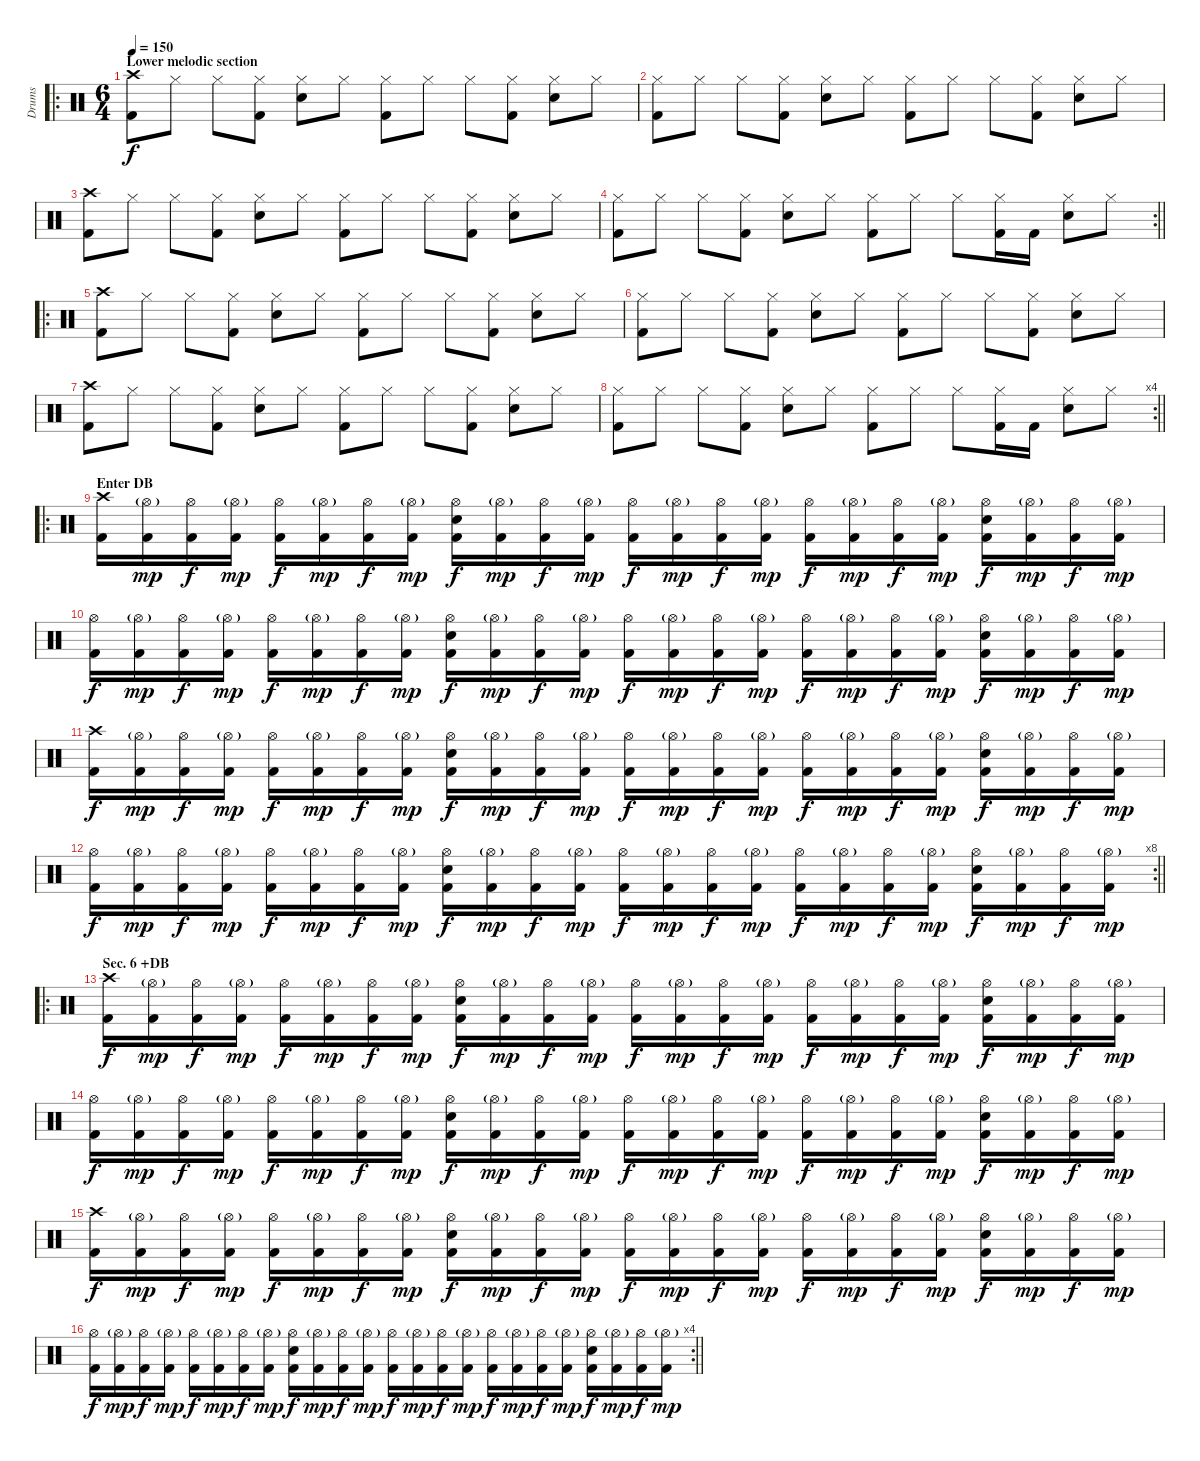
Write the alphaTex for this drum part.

\track ("Drums" "Drums") {instrument percussion}
\staff {score}
\articulation defaults
\ro
\ts (6 4)
\section ("" "Lower melodic section")
\tempo 150
\clef neutral
\ks c
("Kick (hit) 2" "Crash high (hit)").8{dy f} "Hi-Hat (closed)".8 "Hi-Hat (closed)".8 ("Kick (hit) 2" "Hi-Hat (closed)").8 ("Snare (hit) 2" "Hi-Hat (closed)").8 "Hi-Hat (closed)".8 ("Kick (hit) 2" "Hi-Hat (closed)").8 "Hi-Hat (closed)".8 "Hi-Hat (closed)".8 ("Kick (hit) 2" "Hi-Hat (closed)").8 ("Snare (hit) 2" "Hi-Hat (closed)").8 "Hi-Hat (closed)".8 |
("Kick (hit) 2" "Hi-Hat (closed)").8 "Hi-Hat (closed)".8 "Hi-Hat (closed)".8 ("Kick (hit) 2" "Hi-Hat (closed)").8 ("Snare (hit) 2" "Hi-Hat (closed)").8 "Hi-Hat (closed)".8 ("Kick (hit) 2" "Hi-Hat (closed)").8 "Hi-Hat (closed)".8 "Hi-Hat (closed)".8 ("Kick (hit) 2" "Hi-Hat (closed)").8 ("Snare (hit) 2" "Hi-Hat (closed)").8 "Hi-Hat (closed)".8 |
("Kick (hit) 2" "Crash high (hit)").8 "Hi-Hat (closed)".8 "Hi-Hat (closed)".8 ("Kick (hit) 2" "Hi-Hat (closed)").8 ("Snare (hit) 2" "Hi-Hat (closed)").8 "Hi-Hat (closed)".8 ("Kick (hit) 2" "Hi-Hat (closed)").8 "Hi-Hat (closed)".8 "Hi-Hat (closed)".8 ("Kick (hit) 2" "Hi-Hat (closed)").8 ("Snare (hit) 2" "Hi-Hat (closed)").8 "Hi-Hat (closed)".8 |
\rc 2
\barLineRight lightlight
("Kick (hit) 2" "Hi-Hat (closed)").8 "Hi-Hat (closed)".8 "Hi-Hat (closed)".8 ("Kick (hit) 2" "Hi-Hat (closed)").8 ("Snare (hit) 2" "Hi-Hat (closed)").8 "Hi-Hat (closed)".8 ("Kick (hit) 2" "Hi-Hat (closed)").8 "Hi-Hat (closed)".8 "Hi-Hat (closed)".8 ("Kick (hit) 2" "Hi-Hat (closed)").16 "Kick (hit) 2".16 ("Snare (hit) 2" "Hi-Hat (closed)").8 "Hi-Hat (closed)".8 |
\ro
("Kick (hit) 2" "Crash high (hit)").8 "Hi-Hat (closed)".8 "Hi-Hat (closed)".8 ("Kick (hit) 2" "Hi-Hat (closed)").8 ("Snare (hit) 2" "Hi-Hat (closed)").8 "Hi-Hat (closed)".8 ("Kick (hit) 2" "Hi-Hat (closed)").8 "Hi-Hat (closed)".8 "Hi-Hat (closed)".8 ("Kick (hit) 2" "Hi-Hat (closed)").8 ("Snare (hit) 2" "Hi-Hat (closed)").8 "Hi-Hat (closed)".8 |
("Kick (hit) 2" "Hi-Hat (closed)").8 "Hi-Hat (closed)".8 "Hi-Hat (closed)".8 ("Kick (hit) 2" "Hi-Hat (closed)").8 ("Snare (hit) 2" "Hi-Hat (closed)").8 "Hi-Hat (closed)".8 ("Kick (hit) 2" "Hi-Hat (closed)").8 "Hi-Hat (closed)".8 "Hi-Hat (closed)".8 ("Kick (hit) 2" "Hi-Hat (closed)").8 ("Snare (hit) 2" "Hi-Hat (closed)").8 "Hi-Hat (closed)".8 |
("Kick (hit) 2" "Crash high (hit)").8 "Hi-Hat (closed)".8 "Hi-Hat (closed)".8 ("Kick (hit) 2" "Hi-Hat (closed)").8 ("Snare (hit) 2" "Hi-Hat (closed)").8 "Hi-Hat (closed)".8 ("Kick (hit) 2" "Hi-Hat (closed)").8 "Hi-Hat (closed)".8 "Hi-Hat (closed)".8 ("Kick (hit) 2" "Hi-Hat (closed)").8 ("Snare (hit) 2" "Hi-Hat (closed)").8 "Hi-Hat (closed)".8 |
\rc 4
\barLineRight lightlight
("Kick (hit) 2" "Hi-Hat (closed)").8 "Hi-Hat (closed)".8 "Hi-Hat (closed)".8 ("Kick (hit) 2" "Hi-Hat (closed)").8 ("Snare (hit) 2" "Hi-Hat (closed)").8 "Hi-Hat (closed)".8 ("Kick (hit) 2" "Hi-Hat (closed)").8 "Hi-Hat (closed)".8 "Hi-Hat (closed)".8 ("Kick (hit) 2" "Hi-Hat (closed)").16 "Kick (hit) 2".16 ("Snare (hit) 2" "Hi-Hat (closed)").8 "Hi-Hat (closed)".8 |
\ro
\section ("" "Enter DB")
("Kick (hit) 2" "Crash high (hit)").16 ("Kick (hit) 2" "Hi-Hat (open)"{g}).16{dy mp} ("Kick (hit) 2" "Hi-Hat (open)").16{dy f} ("Kick (hit) 2" "Hi-Hat (open)"{g}).16{dy mp} ("Kick (hit) 2" "Hi-Hat (open)").16{dy f} ("Kick (hit) 2" "Hi-Hat (open)"{g}).16{dy mp} ("Kick (hit) 2" "Hi-Hat (open)").16{dy f} ("Kick (hit) 2" "Hi-Hat (open)"{g}).16{dy mp} ("Kick (hit) 2" "Snare (hit) 2" "Hi-Hat (open)").16{dy f} ("Kick (hit) 2" "Hi-Hat (open)"{g}).16{dy mp} ("Kick (hit) 2" "Hi-Hat (open)").16{dy f} ("Kick (hit) 2" "Hi-Hat (open)"{g}).16{dy mp} ("Kick (hit) 2" "Hi-Hat (open)").16{dy f} ("Kick (hit) 2" "Hi-Hat (open)"{g}).16{dy mp} ("Kick (hit) 2" "Hi-Hat (open)").16{dy f} ("Kick (hit) 2" "Hi-Hat (open)"{g}).16{dy mp} ("Kick (hit) 2" "Hi-Hat (open)").16{dy f} ("Kick (hit) 2" "Hi-Hat (open)"{g}).16{dy mp} ("Kick (hit) 2" "Hi-Hat (open)").16{dy f} ("Kick (hit) 2" "Hi-Hat (open)"{g}).16{dy mp} ("Kick (hit) 2" "Snare (hit) 2" "Hi-Hat (open)").16{dy f} ("Kick (hit) 2" "Hi-Hat (open)"{g}).16{dy mp} ("Kick (hit) 2" "Hi-Hat (open)").16{dy f} ("Kick (hit) 2" "Hi-Hat (open)"{g}).16{dy mp} |
("Kick (hit) 2" "Hi-Hat (open)").16{dy f} ("Kick (hit) 2" "Hi-Hat (open)"{g}).16{dy mp} ("Kick (hit) 2" "Hi-Hat (open)").16{dy f} ("Kick (hit) 2" "Hi-Hat (open)"{g}).16{dy mp} ("Kick (hit) 2" "Hi-Hat (open)").16{dy f} ("Kick (hit) 2" "Hi-Hat (open)"{g}).16{dy mp} ("Kick (hit) 2" "Hi-Hat (open)").16{dy f} ("Kick (hit) 2" "Hi-Hat (open)"{g}).16{dy mp} ("Kick (hit) 2" "Snare (hit) 2" "Hi-Hat (open)").16{dy f} ("Kick (hit) 2" "Hi-Hat (open)"{g}).16{dy mp} ("Kick (hit) 2" "Hi-Hat (open)").16{dy f} ("Kick (hit) 2" "Hi-Hat (open)"{g}).16{dy mp} ("Kick (hit) 2" "Hi-Hat (open)").16{dy f} ("Kick (hit) 2" "Hi-Hat (open)"{g}).16{dy mp} ("Kick (hit) 2" "Hi-Hat (open)").16{dy f} ("Kick (hit) 2" "Hi-Hat (open)"{g}).16{dy mp} ("Kick (hit) 2" "Hi-Hat (open)").16{dy f} ("Kick (hit) 2" "Hi-Hat (open)"{g}).16{dy mp} ("Kick (hit) 2" "Hi-Hat (open)").16{dy f} ("Kick (hit) 2" "Hi-Hat (open)"{g}).16{dy mp} ("Kick (hit) 2" "Snare (hit) 2" "Hi-Hat (open)").16{dy f} ("Kick (hit) 2" "Hi-Hat (open)"{g}).16{dy mp} ("Kick (hit) 2" "Hi-Hat (open)").16{dy f} ("Kick (hit) 2" "Hi-Hat (open)"{g}).16{dy mp} |
("Kick (hit) 2" "Crash high (hit)").16{dy f} ("Kick (hit) 2" "Hi-Hat (open)"{g}).16{dy mp} ("Kick (hit) 2" "Hi-Hat (open)").16{dy f} ("Kick (hit) 2" "Hi-Hat (open)"{g}).16{dy mp} ("Kick (hit) 2" "Hi-Hat (open)").16{dy f} ("Kick (hit) 2" "Hi-Hat (open)"{g}).16{dy mp} ("Kick (hit) 2" "Hi-Hat (open)").16{dy f} ("Kick (hit) 2" "Hi-Hat (open)"{g}).16{dy mp} ("Kick (hit) 2" "Snare (hit) 2" "Hi-Hat (open)").16{dy f} ("Kick (hit) 2" "Hi-Hat (open)"{g}).16{dy mp} ("Kick (hit) 2" "Hi-Hat (open)").16{dy f} ("Kick (hit) 2" "Hi-Hat (open)"{g}).16{dy mp} ("Kick (hit) 2" "Hi-Hat (open)").16{dy f} ("Kick (hit) 2" "Hi-Hat (open)"{g}).16{dy mp} ("Kick (hit) 2" "Hi-Hat (open)").16{dy f} ("Kick (hit) 2" "Hi-Hat (open)"{g}).16{dy mp} ("Kick (hit) 2" "Hi-Hat (open)").16{dy f} ("Kick (hit) 2" "Hi-Hat (open)"{g}).16{dy mp} ("Kick (hit) 2" "Hi-Hat (open)").16{dy f} ("Kick (hit) 2" "Hi-Hat (open)"{g}).16{dy mp} ("Kick (hit) 2" "Snare (hit) 2" "Hi-Hat (open)").16{dy f} ("Kick (hit) 2" "Hi-Hat (open)"{g}).16{dy mp} ("Kick (hit) 2" "Hi-Hat (open)").16{dy f} ("Kick (hit) 2" "Hi-Hat (open)"{g}).16{dy mp} |
\rc 8
\barLineRight lightlight
("Kick (hit) 2" "Hi-Hat (open)").16{dy f} ("Kick (hit) 2" "Hi-Hat (open)"{g}).16{dy mp} ("Kick (hit) 2" "Hi-Hat (open)").16{dy f} ("Kick (hit) 2" "Hi-Hat (open)"{g}).16{dy mp} ("Kick (hit) 2" "Hi-Hat (open)").16{dy f} ("Kick (hit) 2" "Hi-Hat (open)"{g}).16{dy mp} ("Kick (hit) 2" "Hi-Hat (open)").16{dy f} ("Kick (hit) 2" "Hi-Hat (open)"{g}).16{dy mp} ("Kick (hit) 2" "Snare (hit) 2" "Hi-Hat (open)").16{dy f} ("Kick (hit) 2" "Hi-Hat (open)"{g}).16{dy mp} ("Kick (hit) 2" "Hi-Hat (open)").16{dy f} ("Kick (hit) 2" "Hi-Hat (open)"{g}).16{dy mp} ("Kick (hit) 2" "Hi-Hat (open)").16{dy f} ("Kick (hit) 2" "Hi-Hat (open)"{g}).16{dy mp} ("Kick (hit) 2" "Hi-Hat (open)").16{dy f} ("Kick (hit) 2" "Hi-Hat (open)"{g}).16{dy mp} ("Kick (hit) 2" "Hi-Hat (open)").16{dy f} ("Kick (hit) 2" "Hi-Hat (open)"{g}).16{dy mp} ("Kick (hit) 2" "Hi-Hat (open)").16{dy f} ("Kick (hit) 2" "Hi-Hat (open)"{g}).16{dy mp} ("Kick (hit) 2" "Snare (hit) 2" "Hi-Hat (open)").16{dy f} ("Kick (hit) 2" "Hi-Hat (open)"{g}).16{dy mp} ("Kick (hit) 2" "Hi-Hat (open)").16{dy f} ("Kick (hit) 2" "Hi-Hat (open)"{g}).16{dy mp} |
\ro
\section ("" "Sec. 6 +DB")
("Kick (hit) 2" "Crash high (hit)").16{dy f} ("Kick (hit) 2" "Hi-Hat (open)"{g}).16{dy mp} ("Kick (hit) 2" "Hi-Hat (open)").16{dy f} ("Kick (hit) 2" "Hi-Hat (open)"{g}).16{dy mp} ("Kick (hit) 2" "Hi-Hat (open)").16{dy f} ("Kick (hit) 2" "Hi-Hat (open)"{g}).16{dy mp} ("Kick (hit) 2" "Hi-Hat (open)").16{dy f} ("Kick (hit) 2" "Hi-Hat (open)"{g}).16{dy mp} ("Kick (hit) 2" "Snare (hit) 2" "Hi-Hat (open)").16{dy f} ("Kick (hit) 2" "Hi-Hat (open)"{g}).16{dy mp} ("Kick (hit) 2" "Hi-Hat (open)").16{dy f} ("Kick (hit) 2" "Hi-Hat (open)"{g}).16{dy mp} ("Kick (hit) 2" "Hi-Hat (open)").16{dy f} ("Kick (hit) 2" "Hi-Hat (open)"{g}).16{dy mp} ("Kick (hit) 2" "Hi-Hat (open)").16{dy f} ("Kick (hit) 2" "Hi-Hat (open)"{g}).16{dy mp} ("Kick (hit) 2" "Hi-Hat (open)").16{dy f} ("Kick (hit) 2" "Hi-Hat (open)"{g}).16{dy mp} ("Kick (hit) 2" "Hi-Hat (open)").16{dy f} ("Kick (hit) 2" "Hi-Hat (open)"{g}).16{dy mp} ("Kick (hit) 2" "Snare (hit) 2" "Hi-Hat (open)").16{dy f} ("Kick (hit) 2" "Hi-Hat (open)"{g}).16{dy mp} ("Kick (hit) 2" "Hi-Hat (open)").16{dy f} ("Kick (hit) 2" "Hi-Hat (open)"{g}).16{dy mp} |
("Kick (hit) 2" "Hi-Hat (open)").16{dy f} ("Kick (hit) 2" "Hi-Hat (open)"{g}).16{dy mp} ("Kick (hit) 2" "Hi-Hat (open)").16{dy f} ("Kick (hit) 2" "Hi-Hat (open)"{g}).16{dy mp} ("Kick (hit) 2" "Hi-Hat (open)").16{dy f} ("Kick (hit) 2" "Hi-Hat (open)"{g}).16{dy mp} ("Kick (hit) 2" "Hi-Hat (open)").16{dy f} ("Kick (hit) 2" "Hi-Hat (open)"{g}).16{dy mp} ("Kick (hit) 2" "Snare (hit) 2" "Hi-Hat (open)").16{dy f} ("Kick (hit) 2" "Hi-Hat (open)"{g}).16{dy mp} ("Kick (hit) 2" "Hi-Hat (open)").16{dy f} ("Kick (hit) 2" "Hi-Hat (open)"{g}).16{dy mp} ("Kick (hit) 2" "Hi-Hat (open)").16{dy f} ("Kick (hit) 2" "Hi-Hat (open)"{g}).16{dy mp} ("Kick (hit) 2" "Hi-Hat (open)").16{dy f} ("Kick (hit) 2" "Hi-Hat (open)"{g}).16{dy mp} ("Kick (hit) 2" "Hi-Hat (open)").16{dy f} ("Kick (hit) 2" "Hi-Hat (open)"{g}).16{dy mp} ("Kick (hit) 2" "Hi-Hat (open)").16{dy f} ("Kick (hit) 2" "Hi-Hat (open)"{g}).16{dy mp} ("Kick (hit) 2" "Snare (hit) 2" "Hi-Hat (open)").16{dy f} ("Kick (hit) 2" "Hi-Hat (open)"{g}).16{dy mp} ("Kick (hit) 2" "Hi-Hat (open)").16{dy f} ("Kick (hit) 2" "Hi-Hat (open)"{g}).16{dy mp} |
("Kick (hit) 2" "Crash high (hit)").16{dy f} ("Kick (hit) 2" "Hi-Hat (open)"{g}).16{dy mp} ("Kick (hit) 2" "Hi-Hat (open)").16{dy f} ("Kick (hit) 2" "Hi-Hat (open)"{g}).16{dy mp} ("Kick (hit) 2" "Hi-Hat (open)").16{dy f} ("Kick (hit) 2" "Hi-Hat (open)"{g}).16{dy mp} ("Kick (hit) 2" "Hi-Hat (open)").16{dy f} ("Kick (hit) 2" "Hi-Hat (open)"{g}).16{dy mp} ("Kick (hit) 2" "Snare (hit) 2" "Hi-Hat (open)").16{dy f} ("Kick (hit) 2" "Hi-Hat (open)"{g}).16{dy mp} ("Kick (hit) 2" "Hi-Hat (open)").16{dy f} ("Kick (hit) 2" "Hi-Hat (open)"{g}).16{dy mp} ("Kick (hit) 2" "Hi-Hat (open)").16{dy f} ("Kick (hit) 2" "Hi-Hat (open)"{g}).16{dy mp} ("Kick (hit) 2" "Hi-Hat (open)").16{dy f} ("Kick (hit) 2" "Hi-Hat (open)"{g}).16{dy mp} ("Kick (hit) 2" "Hi-Hat (open)").16{dy f} ("Kick (hit) 2" "Hi-Hat (open)"{g}).16{dy mp} ("Kick (hit) 2" "Hi-Hat (open)").16{dy f} ("Kick (hit) 2" "Hi-Hat (open)"{g}).16{dy mp} ("Kick (hit) 2" "Snare (hit) 2" "Hi-Hat (open)").16{dy f} ("Kick (hit) 2" "Hi-Hat (open)"{g}).16{dy mp} ("Kick (hit) 2" "Hi-Hat (open)").16{dy f} ("Kick (hit) 2" "Hi-Hat (open)"{g}).16{dy mp} |
\rc 4
\barLineRight lightlight
("Kick (hit) 2" "Hi-Hat (open)").16{dy f} ("Kick (hit) 2" "Hi-Hat (open)"{g}).16{dy mp} ("Kick (hit) 2" "Hi-Hat (open)").16{dy f} ("Kick (hit) 2" "Hi-Hat (open)"{g}).16{dy mp} ("Kick (hit) 2" "Hi-Hat (open)").16{dy f} ("Kick (hit) 2" "Hi-Hat (open)"{g}).16{dy mp} ("Kick (hit) 2" "Hi-Hat (open)").16{dy f} ("Kick (hit) 2" "Hi-Hat (open)"{g}).16{dy mp} ("Kick (hit) 2" "Snare (hit) 2" "Hi-Hat (open)").16{dy f} ("Kick (hit) 2" "Hi-Hat (open)"{g}).16{dy mp} ("Kick (hit) 2" "Hi-Hat (open)").16{dy f} ("Kick (hit) 2" "Hi-Hat (open)"{g}).16{dy mp} ("Kick (hit) 2" "Hi-Hat (open)").16{dy f} ("Kick (hit) 2" "Hi-Hat (open)"{g}).16{dy mp} ("Kick (hit) 2" "Hi-Hat (open)").16{dy f} ("Kick (hit) 2" "Hi-Hat (open)"{g}).16{dy mp} ("Kick (hit) 2" "Hi-Hat (open)").16{dy f} ("Kick (hit) 2" "Hi-Hat (open)"{g}).16{dy mp} ("Kick (hit) 2" "Hi-Hat (open)").16{dy f} ("Kick (hit) 2" "Hi-Hat (open)"{g}).16{dy mp} ("Kick (hit) 2" "Snare (hit) 2" "Hi-Hat (open)").16{dy f} ("Kick (hit) 2" "Hi-Hat (open)"{g}).16{dy mp} ("Kick (hit) 2" "Hi-Hat (open)").16{dy f} ("Kick (hit) 2" "Hi-Hat (open)"{g}).16{dy mp}
